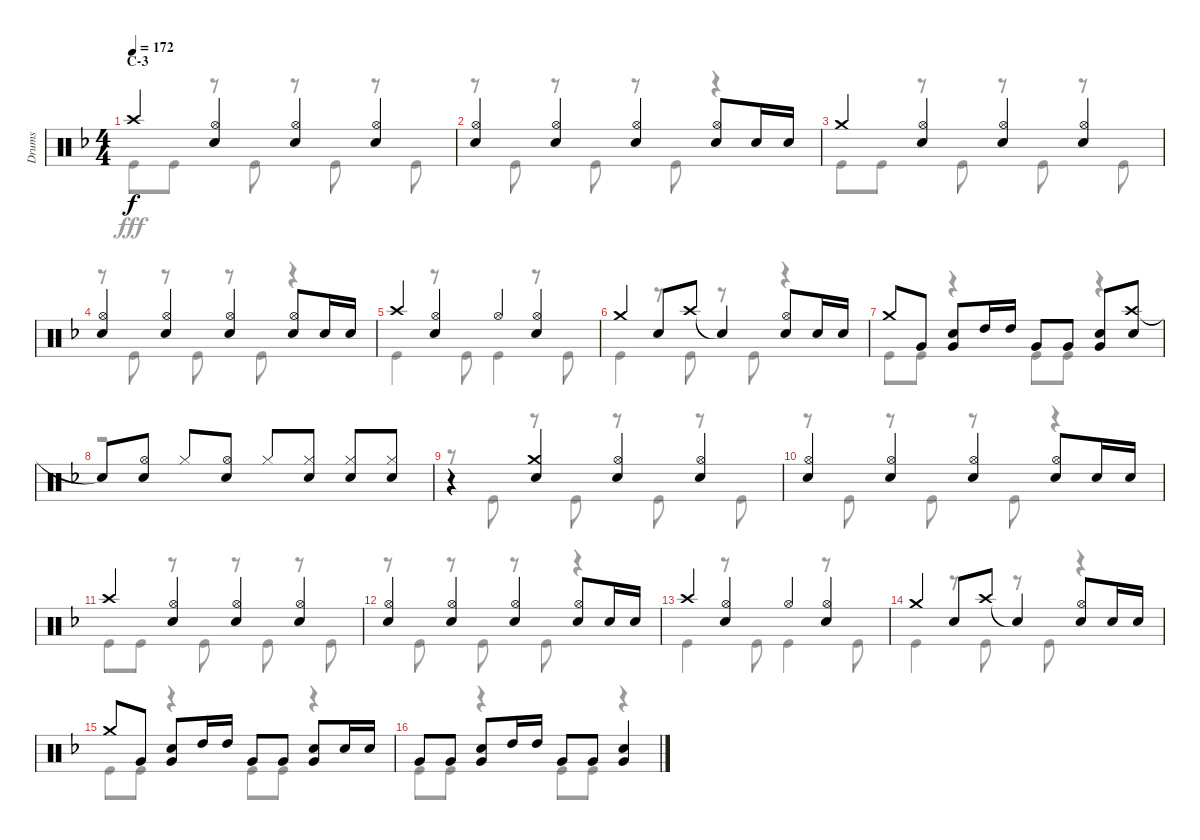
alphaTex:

\track ("Drums" "Drums") {instrument percussion}
\staff {score}
\articulation defaults
\voice
\ts (4 4)
\section ("" "C-3")
\tempo 172
\clef neutral
\ks f "Crash high (hit)".4{dy f}
("Hi-Hat (open)" "Snare (hit) 2").4 ("Hi-Hat (open)" "Snare (hit) 2").4 ("Hi-Hat (open)" "Snare (hit) 2").4 |
("Hi-Hat (open)" "Snare (hit) 2").4 ("Hi-Hat (open)" "Snare (hit) 2").4 ("Hi-Hat (open)" "Snare (hit) 2").4 ("Hi-Hat (open)" "Snare (hit) 2").8 "Snare (hit) 2".16 "Snare (hit) 2".16 |
"Crash medium (hit)".4 ("Hi-Hat (open)" "Snare (hit) 2").4 ("Hi-Hat (open)" "Snare (hit) 2").4 ("Hi-Hat (open)" "Snare (hit) 2").4 |
("Hi-Hat (open)" "Snare (hit) 2").4 ("Hi-Hat (open)" "Snare (hit) 2").4 ("Hi-Hat (open)" "Snare (hit) 2").4 ("Hi-Hat (open)" "Snare (hit) 2").8 "Snare (hit) 2".16 "Snare (hit) 2".16 |
"Crash high (hit)".4 ("Hi-Hat (open)" "Snare (hit) 2").4 "Hi-Hat (open)".4 ("Hi-Hat (open)" "Snare (hit) 2").4 |
"Crash medium (hit)".4 "Snare (hit) 2".8 "Crash high (hit)".8 "Snare (hit)"{t}.4 ("Hi-Hat (open)" "Snare (hit) 2").8 "Snare (hit) 2".16 "Snare (hit) 2".16 |
"Crash medium (hit)".8 "Very Low Tom (hit)".8 ("Snare (hit) 2" "Very Low Tom (hit)").8 "High Tom (hit)".16 "High Tom (hit)".16 "Very Low Tom (hit)".8 "Very Low Tom (hit)".8 ("Snare (hit) 2" "Very Low Tom (hit)").8 ("Crash high (hit)" "Snare (hit) 2").8 |
"Snare (hit)"{t}.8 ("Hi-Hat (open)" "Snare (hit) 2").8 "Hi-Hat (closed)".8 ("Hi-Hat (open)" "Snare (hit) 2").8 "Hi-Hat (closed)".8 ("Hi-Hat (closed)" "Snare (hit) 2").8 ("Hi-Hat (closed)" "Snare (hit) 2").8 ("Hi-Hat (closed)" "Snare (hit) 2").8 |
r.4 ("Crash medium (hit)" "Snare (hit) 2").4 ("Hi-Hat (open)" "Snare (hit) 2").4 ("Hi-Hat (open)" "Snare (hit) 2").4 |
("Hi-Hat (open)" "Snare (hit) 2").4 ("Hi-Hat (open)" "Snare (hit) 2").4 ("Hi-Hat (open)" "Snare (hit) 2").4 ("Hi-Hat (open)" "Snare (hit) 2").8 "Snare (hit) 2".16 "Snare (hit) 2".16 |
"Crash high (hit)".4 ("Hi-Hat (open)" "Snare (hit) 2").4 ("Hi-Hat (open)" "Snare (hit) 2").4 ("Hi-Hat (open)" "Snare (hit) 2").4 |
("Hi-Hat (open)" "Snare (hit) 2").4 ("Hi-Hat (open)" "Snare (hit) 2").4 ("Hi-Hat (open)" "Snare (hit) 2").4 ("Hi-Hat (open)" "Snare (hit) 2").8 "Snare (hit) 2".16 "Snare (hit) 2".16 |
"Crash high (hit)".4 ("Hi-Hat (open)" "Snare (hit) 2").4 "Hi-Hat (open)".4 ("Hi-Hat (open)" "Snare (hit) 2").4 |
"Crash medium (hit)".4 "Snare (hit) 2".8 "Crash high (hit)".8 "Snare (hit)"{t}.4 ("Hi-Hat (open)" "Snare (hit) 2").8 "Snare (hit) 2".16 "Snare (hit) 2".16 |
"Crash medium (hit)".8 "Very Low Tom (hit)".8 ("Snare (hit) 2" "Very Low Tom (hit)").8 "High Tom (hit)".16 "High Tom (hit)".16 "Very Low Tom (hit)".8 "Very Low Tom (hit)".8 ("Snare (hit) 2" "Very Low Tom (hit)").8 "Snare (hit) 2".16 "Snare (hit) 2".16 |
"Very Low Tom (hit)".8 "Very Low Tom (hit)".8 ("Snare (hit) 2" "Very Low Tom (hit)").8 "High Tom (hit)".16 "High Tom (hit)".16 "Very Low Tom (hit)".8 "Very Low Tom (hit)".8 ("Snare (hit) 2" "Very Low Tom (hit)").4
\voice
\clef neutral
\ottava regular
\simile none
\ks f "Kick (hit)".8{dy fff} "Kick (hit)".8
r.8 "Kick (hit)".8 r.8 "Kick (hit)".8 r.8 "Kick (hit)".8 |
r.8 "Kick (hit)".8 r.8 "Kick (hit)".8 r.8 "Kick (hit)".8 r.4 |
"Kick (hit)".8 "Kick (hit)".8 r.8 "Kick (hit)".8 r.8 "Kick (hit)".8 r.8 "Kick (hit)".8 |
r.8 "Kick (hit)".8 r.8 "Kick (hit)".8 r.8 "Kick (hit)".8 r.4 |
"Kick (hit)".4 r.8 "Kick (hit)".8 "Kick (hit)".4 r.8 "Kick (hit)".8 |
"Kick (hit)".4 r.8 "Kick (hit)".8 r.8 "Kick (hit)".8 r.4 |
"Kick (hit)".8 "Kick (hit)".8 r.4 "Kick (hit)".8 "Kick (hit)".8 r.4 |
r.1 |
r.8 "Kick (hit)".8 r.8 "Kick (hit)".8 r.8 "Kick (hit)".8 r.8 "Kick (hit)".8 |
r.8 "Kick (hit)".8 r.8 "Kick (hit)".8 r.8 "Kick (hit)".8 r.4 |
"Kick (hit)".8 "Kick (hit)".8 r.8 "Kick (hit)".8 r.8 "Kick (hit)".8 r.8 "Kick (hit)".8 |
r.8 "Kick (hit)".8 r.8 "Kick (hit)".8 r.8 "Kick (hit)".8 r.4 |
"Kick (hit)".4 r.8 "Kick (hit)".8 "Kick (hit)".4 r.8 "Kick (hit)".8 |
"Kick (hit)".4 r.8 "Kick (hit)".8 r.8 "Kick (hit)".8 r.4 |
"Kick (hit)".8 "Kick (hit)".8 r.4 "Kick (hit)".8 "Kick (hit)".8 r.4 |
"Kick (hit)".8 "Kick (hit)".8 r.4 "Kick (hit)".8 "Kick (hit)".8 r.4
